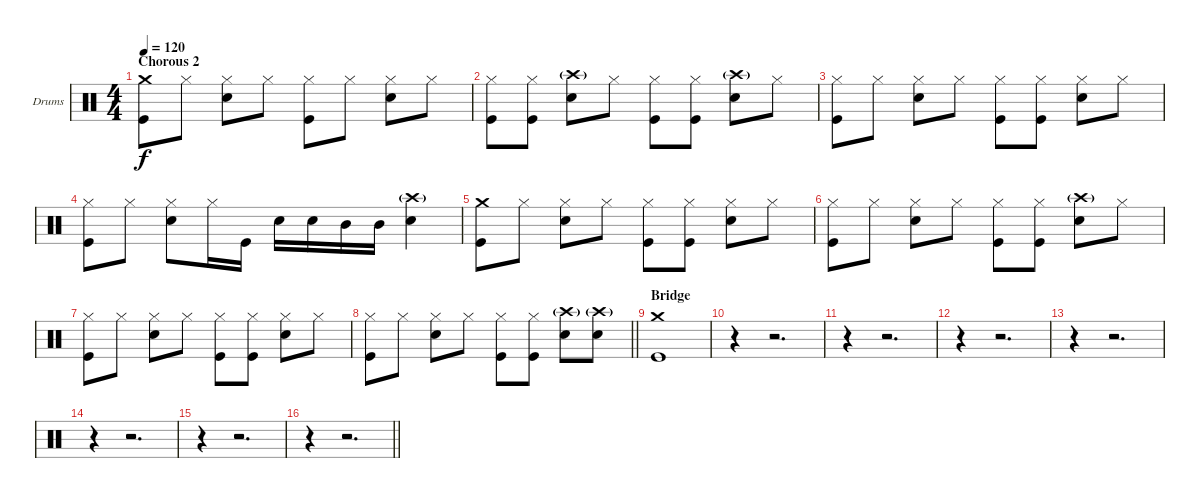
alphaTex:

\bracketExtendMode groupsimilarinstruments
\firstSystemTrackNameOrientation horizontal
\otherSystemsTrackNameOrientation horizontal
\track ("Drumkit" "Drums") {instrument percussion}
\staff {score}
\articulation defaults
\ts (4 4)
\section ("" "Chorous 2")
\tempo 120
\clef neutral
\ks c
("Crash medium (hit)" "Kick (hit)").8{dy f} "Hi-Hat (closed)".8 ("Hi-Hat (closed)" "Snare (hit) 2").8 "Hi-Hat (closed)".8 ("Hi-Hat (closed)" "Kick (hit)").8 "Hi-Hat (closed)".8 ("Hi-Hat (closed)" "Snare (hit) 2").8 "Hi-Hat (closed)".8 |
("Hi-Hat (closed)" "Kick (hit)").8 ("Hi-Hat (closed)" "Kick (hit)").8 ("Crash high (hit)"{g} "Snare (hit) 2").8 "Hi-Hat (closed)".8 ("Hi-Hat (closed)" "Kick (hit)").8 ("Hi-Hat (closed)" "Kick (hit)").8 ("Crash high (hit)"{g} "Snare (hit) 2").8 "Hi-Hat (closed)".8 |
("Hi-Hat (closed)" "Kick (hit)").8 "Hi-Hat (closed)".8 ("Hi-Hat (closed)" "Snare (hit) 2").8 "Hi-Hat (closed)".8 ("Hi-Hat (closed)" "Kick (hit)").8 ("Hi-Hat (closed)" "Kick (hit)").8 ("Hi-Hat (closed)" "Snare (hit) 2").8 "Hi-Hat (closed)".8 |
("Hi-Hat (closed)" "Kick (hit)").8 "Hi-Hat (closed)".8 ("Hi-Hat (closed)" "Snare (hit) 2").8 "Hi-Hat (closed)".16 "Kick (hit)".16 "Snare (hit) 2".16 "Snare (hit) 2".16 "Mid Tom (hit)".16 "Mid Tom (hit)".16 ("Crash high (hit)"{g} "Snare (hit) 2").4 |
("Crash medium (hit)" "Kick (hit)").8 "Hi-Hat (closed)".8 ("Hi-Hat (closed)" "Snare (hit) 2").8 "Hi-Hat (closed)".8 ("Hi-Hat (closed)" "Kick (hit)").8 ("Hi-Hat (closed)" "Kick (hit)").8 ("Hi-Hat (closed)" "Snare (hit) 2").8 "Hi-Hat (closed)".8 |
("Hi-Hat (closed)" "Kick (hit)").8 "Hi-Hat (closed)".8 ("Hi-Hat (closed)" "Snare (hit) 2").8 "Hi-Hat (closed)".8 ("Hi-Hat (closed)" "Kick (hit)").8 ("Hi-Hat (closed)" "Kick (hit)").8 ("Crash high (hit)"{g} "Snare (hit) 2").8 "Hi-Hat (closed)".8 |
("Hi-Hat (closed)" "Kick (hit)").8 "Hi-Hat (closed)".8 ("Hi-Hat (closed)" "Snare (hit) 2").8 "Hi-Hat (closed)".8 ("Hi-Hat (closed)" "Kick (hit)").8 ("Hi-Hat (closed)" "Kick (hit)").8 ("Hi-Hat (closed)" "Snare (hit) 2").8 "Hi-Hat (closed)".8 |
\barLineRight lightlight
("Hi-Hat (closed)" "Kick (hit)").8 "Hi-Hat (closed)".8 ("Hi-Hat (closed)" "Snare (hit) 2").8 "Hi-Hat (closed)".8 ("Hi-Hat (closed)" "Kick (hit)").8 ("Hi-Hat (closed)" "Kick (hit)").8 ("Crash high (hit)"{g} "Snare (hit) 2").8 ("Crash high (hit)"{g} "Snare (hit) 2").8 |
\section ("" "Bridge")
("Crash medium (hit)" "Kick (hit)").1 |
r.4 r.2{d} |
r.4 r.2{d} |
r.4 r.2{d} |
r.4 r.2{d} |
r.4 r.2{d} |
r.4 r.2{d} |
\barLineRight lightlight
r.4 r.2{d}
